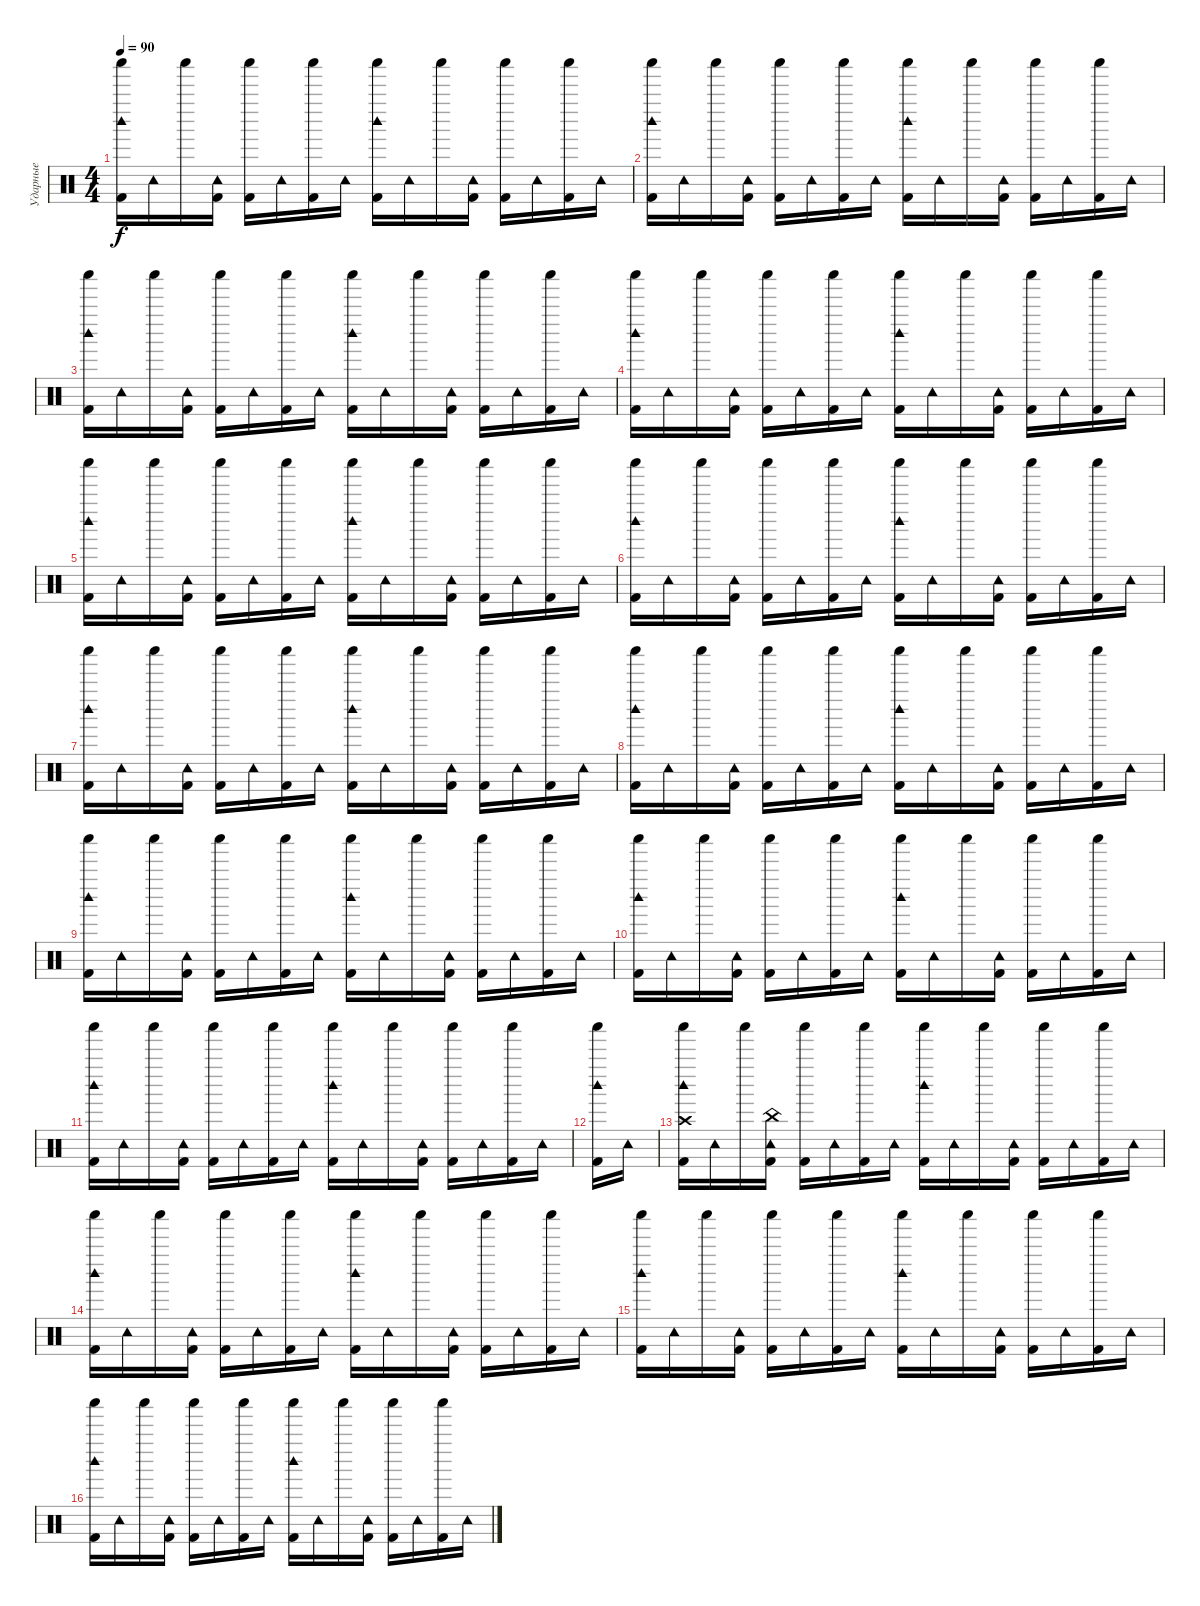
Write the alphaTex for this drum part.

\track ("Ударные" "Ударные") {instrument percussion}
\staff {score}
\articulation defaults
\ts (4 4)
\tempo 90
\clef neutral
\ks c
("Shaker (hit)" "Kick (hit) 2" "Woodblock high (hit)").16{dy f} "Tambourine (hit)".16 "Shaker (hit)".16 ("Tambourine (hit)" "Kick (hit) 2").16 ("Shaker (hit)" "Kick (hit) 2").16 "Tambourine (hit)".16 ("Shaker (hit)" "Kick (hit) 2").16 "Tambourine (hit)".16 ("Shaker (hit)" "Kick (hit) 2" "Woodblock high (hit)").16 "Tambourine (hit)".16 "Shaker (hit)".16 ("Tambourine (hit)" "Kick (hit) 2").16 ("Shaker (hit)" "Kick (hit) 2").16 "Tambourine (hit)".16 ("Shaker (hit)" "Kick (hit) 2").16 "Tambourine (hit)".16 |
("Shaker (hit)" "Kick (hit) 2" "Woodblock high (hit)").16 "Tambourine (hit)".16 "Shaker (hit)".16 ("Tambourine (hit)" "Kick (hit) 2").16 ("Shaker (hit)" "Kick (hit) 2").16 "Tambourine (hit)".16 ("Shaker (hit)" "Kick (hit) 2").16 "Tambourine (hit)".16 ("Shaker (hit)" "Kick (hit) 2" "Woodblock high (hit)").16 "Tambourine (hit)".16 "Shaker (hit)".16 ("Tambourine (hit)" "Kick (hit) 2").16 ("Shaker (hit)" "Kick (hit) 2").16 "Tambourine (hit)".16 ("Shaker (hit)" "Kick (hit) 2").16 "Tambourine (hit)".16 |
("Shaker (hit)" "Kick (hit) 2" "Woodblock high (hit)").16 "Tambourine (hit)".16 "Shaker (hit)".16 ("Tambourine (hit)" "Kick (hit) 2").16 ("Shaker (hit)" "Kick (hit) 2").16 "Tambourine (hit)".16 ("Shaker (hit)" "Kick (hit) 2").16 "Tambourine (hit)".16 ("Shaker (hit)" "Kick (hit) 2" "Woodblock high (hit)").16 "Tambourine (hit)".16 "Shaker (hit)".16 ("Tambourine (hit)" "Kick (hit) 2").16 ("Shaker (hit)" "Kick (hit) 2").16 "Tambourine (hit)".16 ("Shaker (hit)" "Kick (hit) 2").16 "Tambourine (hit)".16 |
("Shaker (hit)" "Kick (hit) 2" "Woodblock high (hit)").16 "Tambourine (hit)".16 "Shaker (hit)".16 ("Tambourine (hit)" "Kick (hit) 2").16 ("Shaker (hit)" "Kick (hit) 2").16 "Tambourine (hit)".16 ("Shaker (hit)" "Kick (hit) 2").16 "Tambourine (hit)".16 ("Shaker (hit)" "Kick (hit) 2" "Woodblock high (hit)").16 "Tambourine (hit)".16 "Shaker (hit)".16 ("Tambourine (hit)" "Kick (hit) 2").16 ("Shaker (hit)" "Kick (hit) 2").16 "Tambourine (hit)".16 ("Shaker (hit)" "Kick (hit) 2").16 "Tambourine (hit)".16 |
("Shaker (hit)" "Kick (hit) 2" "Woodblock high (hit)").16 "Tambourine (hit)".16 "Shaker (hit)".16 ("Tambourine (hit)" "Kick (hit) 2").16 ("Shaker (hit)" "Kick (hit) 2").16 "Tambourine (hit)".16 ("Shaker (hit)" "Kick (hit) 2").16 "Tambourine (hit)".16 ("Shaker (hit)" "Kick (hit) 2" "Woodblock high (hit)").16 "Tambourine (hit)".16 "Shaker (hit)".16 ("Tambourine (hit)" "Kick (hit) 2").16 ("Shaker (hit)" "Kick (hit) 2").16 "Tambourine (hit)".16 ("Shaker (hit)" "Kick (hit) 2").16 "Tambourine (hit)".16 |
("Shaker (hit)" "Kick (hit) 2" "Woodblock high (hit)").16 "Tambourine (hit)".16 "Shaker (hit)".16 ("Tambourine (hit)" "Kick (hit) 2").16 ("Shaker (hit)" "Kick (hit) 2").16 "Tambourine (hit)".16 ("Shaker (hit)" "Kick (hit) 2").16 "Tambourine (hit)".16 ("Shaker (hit)" "Kick (hit) 2" "Woodblock high (hit)").16 "Tambourine (hit)".16 "Shaker (hit)".16 ("Tambourine (hit)" "Kick (hit) 2").16 ("Shaker (hit)" "Kick (hit) 2").16 "Tambourine (hit)".16 ("Shaker (hit)" "Kick (hit) 2").16 "Tambourine (hit)".16 |
("Shaker (hit)" "Kick (hit) 2" "Woodblock high (hit)").16 "Tambourine (hit)".16 "Shaker (hit)".16 ("Tambourine (hit)" "Kick (hit) 2").16 ("Shaker (hit)" "Kick (hit) 2").16 "Tambourine (hit)".16 ("Shaker (hit)" "Kick (hit) 2").16 "Tambourine (hit)".16 ("Shaker (hit)" "Kick (hit) 2" "Woodblock high (hit)").16 "Tambourine (hit)".16 "Shaker (hit)".16 ("Tambourine (hit)" "Kick (hit) 2").16 ("Shaker (hit)" "Kick (hit) 2").16 "Tambourine (hit)".16 ("Shaker (hit)" "Kick (hit) 2").16 "Tambourine (hit)".16 |
("Shaker (hit)" "Kick (hit) 2" "Woodblock high (hit)").16 "Tambourine (hit)".16 "Shaker (hit)".16 ("Tambourine (hit)" "Kick (hit) 2").16 ("Shaker (hit)" "Kick (hit) 2").16 "Tambourine (hit)".16 ("Shaker (hit)" "Kick (hit) 2").16 "Tambourine (hit)".16 ("Shaker (hit)" "Kick (hit) 2" "Woodblock high (hit)").16 "Tambourine (hit)".16 "Shaker (hit)".16 ("Tambourine (hit)" "Kick (hit) 2").16 ("Shaker (hit)" "Kick (hit) 2").16 "Tambourine (hit)".16 ("Shaker (hit)" "Kick (hit) 2").16 "Tambourine (hit)".16 |
("Shaker (hit)" "Kick (hit) 2" "Woodblock high (hit)").16 "Tambourine (hit)".16 "Shaker (hit)".16 ("Tambourine (hit)" "Kick (hit) 2").16 ("Shaker (hit)" "Kick (hit) 2").16 "Tambourine (hit)".16 ("Shaker (hit)" "Kick (hit) 2").16 "Tambourine (hit)".16 ("Shaker (hit)" "Kick (hit) 2" "Woodblock high (hit)").16 "Tambourine (hit)".16 "Shaker (hit)".16 ("Tambourine (hit)" "Kick (hit) 2").16 ("Shaker (hit)" "Kick (hit) 2").16 "Tambourine (hit)".16 ("Shaker (hit)" "Kick (hit) 2").16 "Tambourine (hit)".16 |
("Shaker (hit)" "Kick (hit) 2" "Woodblock high (hit)").16 "Tambourine (hit)".16 "Shaker (hit)".16 ("Tambourine (hit)" "Kick (hit) 2").16 ("Shaker (hit)" "Kick (hit) 2").16 "Tambourine (hit)".16 ("Shaker (hit)" "Kick (hit) 2").16 "Tambourine (hit)".16 ("Shaker (hit)" "Kick (hit) 2" "Woodblock high (hit)").16 "Tambourine (hit)".16 "Shaker (hit)".16 ("Tambourine (hit)" "Kick (hit) 2").16 ("Shaker (hit)" "Kick (hit) 2").16 "Tambourine (hit)".16 ("Shaker (hit)" "Kick (hit) 2").16 "Tambourine (hit)".16 |
("Shaker (hit)" "Kick (hit) 2" "Woodblock high (hit)").16 "Tambourine (hit)".16 "Shaker (hit)".16 ("Tambourine (hit)" "Kick (hit) 2").16 ("Shaker (hit)" "Kick (hit) 2").16 "Tambourine (hit)".16 ("Shaker (hit)" "Kick (hit) 2").16 "Tambourine (hit)".16 ("Shaker (hit)" "Kick (hit) 2" "Woodblock high (hit)").16 "Tambourine (hit)".16 "Shaker (hit)".16 ("Tambourine (hit)" "Kick (hit) 2").16 ("Shaker (hit)" "Kick (hit) 2").16 "Tambourine (hit)".16 ("Shaker (hit)" "Kick (hit) 2").16 "Tambourine (hit)".16 |
("Shaker (hit)" "Kick (hit) 2" "Woodblock high (hit)").16 "Tambourine (hit)".16 |
("Shaker (hit)" "Kick (hit) 2" "Woodblock high (hit)" "Crash high (hit)").16 "Tambourine (hit)".16 "Shaker (hit)".16 ("Tambourine (hit)" "Kick (hit) 2" "China (hit)").16 ("Shaker (hit)" "Kick (hit) 2").16 "Tambourine (hit)".16 ("Shaker (hit)" "Kick (hit) 2").16 "Tambourine (hit)".16 ("Shaker (hit)" "Kick (hit) 2" "Woodblock high (hit)").16 "Tambourine (hit)".16 "Shaker (hit)".16 ("Tambourine (hit)" "Kick (hit) 2").16 ("Shaker (hit)" "Kick (hit) 2").16 "Tambourine (hit)".16 ("Shaker (hit)" "Kick (hit) 2").16 "Tambourine (hit)".16 |
("Shaker (hit)" "Kick (hit) 2" "Woodblock high (hit)").16 "Tambourine (hit)".16 "Shaker (hit)".16 ("Tambourine (hit)" "Kick (hit) 2").16 ("Shaker (hit)" "Kick (hit) 2").16 "Tambourine (hit)".16 ("Shaker (hit)" "Kick (hit) 2").16 "Tambourine (hit)".16 ("Shaker (hit)" "Kick (hit) 2" "Woodblock high (hit)").16 "Tambourine (hit)".16 "Shaker (hit)".16 ("Tambourine (hit)" "Kick (hit) 2").16 ("Shaker (hit)" "Kick (hit) 2").16 "Tambourine (hit)".16 ("Shaker (hit)" "Kick (hit) 2").16 "Tambourine (hit)".16 |
("Shaker (hit)" "Kick (hit) 2" "Woodblock high (hit)").16 "Tambourine (hit)".16 "Shaker (hit)".16 ("Tambourine (hit)" "Kick (hit) 2").16 ("Shaker (hit)" "Kick (hit) 2").16 "Tambourine (hit)".16 ("Shaker (hit)" "Kick (hit) 2").16 "Tambourine (hit)".16 ("Shaker (hit)" "Kick (hit) 2" "Woodblock high (hit)").16 "Tambourine (hit)".16 "Shaker (hit)".16 ("Tambourine (hit)" "Kick (hit) 2").16 ("Shaker (hit)" "Kick (hit) 2").16 "Tambourine (hit)".16 ("Shaker (hit)" "Kick (hit) 2").16 "Tambourine (hit)".16 |
("Shaker (hit)" "Kick (hit) 2" "Woodblock high (hit)").16 "Tambourine (hit)".16 "Shaker (hit)".16 ("Tambourine (hit)" "Kick (hit) 2").16 ("Shaker (hit)" "Kick (hit) 2").16 "Tambourine (hit)".16 ("Shaker (hit)" "Kick (hit) 2").16 "Tambourine (hit)".16 ("Shaker (hit)" "Kick (hit) 2" "Woodblock high (hit)").16 "Tambourine (hit)".16 "Shaker (hit)".16 ("Tambourine (hit)" "Kick (hit) 2").16 ("Shaker (hit)" "Kick (hit) 2").16 "Tambourine (hit)".16 ("Shaker (hit)" "Kick (hit) 2").16 "Tambourine (hit)".16
